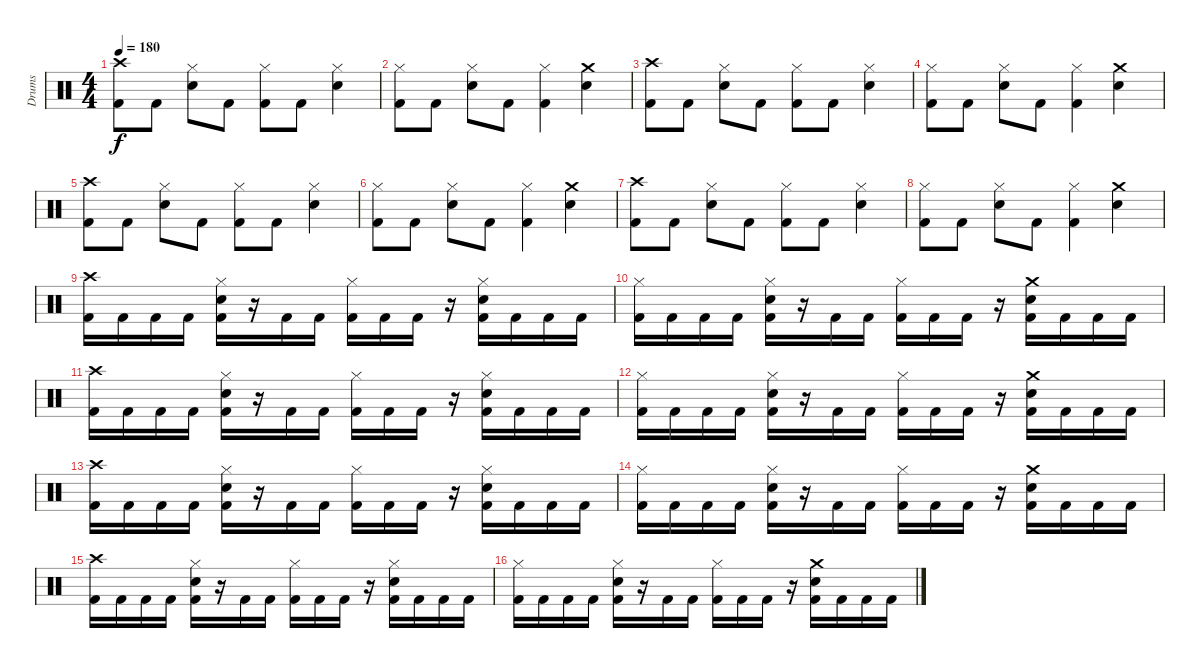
\track ("Drums" "Drums") {instrument percussion}
\staff {score}
\articulation defaults
\ts (4 4)
\tempo 180
\clef neutral
\ks c
("Kick (hit) 2" "Crash high (hit)").8{dy f} "Kick (hit) 2".8 ("Snare (hit) 2" "Hi-Hat (closed)").8 "Kick (hit) 2".8 ("Kick (hit) 2" "Hi-Hat (closed)").8 "Kick (hit) 2".8 ("Snare (hit) 2" "Hi-Hat (closed)").4 |
("Kick (hit) 2" "Hi-Hat (closed)").8 "Kick (hit) 2".8 ("Snare (hit) 2" "Hi-Hat (closed)").8 "Kick (hit) 2".8 ("Kick (hit) 2" "Hi-Hat (closed)").4 ("Snare (hit) 2" "Crash medium (hit)").4 |
("Kick (hit) 2" "Crash high (hit)").8 "Kick (hit) 2".8 ("Snare (hit) 2" "Hi-Hat (closed)").8 "Kick (hit) 2".8 ("Kick (hit) 2" "Hi-Hat (closed)").8 "Kick (hit) 2".8 ("Snare (hit) 2" "Hi-Hat (closed)").4 |
("Kick (hit) 2" "Hi-Hat (closed)").8 "Kick (hit) 2".8 ("Snare (hit) 2" "Hi-Hat (closed)").8 "Kick (hit) 2".8 ("Kick (hit) 2" "Hi-Hat (closed)").4 ("Snare (hit) 2" "Crash medium (hit)").4 |
("Kick (hit) 2" "Crash high (hit)").8 "Kick (hit) 2".8 ("Snare (hit) 2" "Hi-Hat (closed)").8 "Kick (hit) 2".8 ("Kick (hit) 2" "Hi-Hat (closed)").8 "Kick (hit) 2".8 ("Snare (hit) 2" "Hi-Hat (closed)").4 |
("Kick (hit) 2" "Hi-Hat (closed)").8 "Kick (hit) 2".8 ("Snare (hit) 2" "Hi-Hat (closed)").8 "Kick (hit) 2".8 ("Kick (hit) 2" "Hi-Hat (closed)").4 ("Snare (hit) 2" "Crash medium (hit)").4 |
("Kick (hit) 2" "Crash high (hit)").8 "Kick (hit) 2".8 ("Snare (hit) 2" "Hi-Hat (closed)").8 "Kick (hit) 2".8 ("Kick (hit) 2" "Hi-Hat (closed)").8 "Kick (hit) 2".8 ("Snare (hit) 2" "Hi-Hat (closed)").4 |
("Kick (hit) 2" "Hi-Hat (closed)").8 "Kick (hit) 2".8 ("Snare (hit) 2" "Hi-Hat (closed)").8 "Kick (hit) 2".8 ("Kick (hit) 2" "Hi-Hat (closed)").4 ("Snare (hit) 2" "Crash medium (hit)").4 |
("Kick (hit) 2" "Crash high (hit)").16 "Kick (hit) 2".16 "Kick (hit) 2".16 "Kick (hit) 2".16 ("Kick (hit) 2" "Snare (hit) 2" "Hi-Hat (closed)").16 r.16 "Kick (hit) 2".16 "Kick (hit) 2".16 ("Kick (hit) 2" "Hi-Hat (closed)").16 "Kick (hit) 2".16 "Kick (hit) 2".16 r.16 ("Kick (hit) 2" "Snare (hit) 2" "Hi-Hat (closed)").16 "Kick (hit) 2".16 "Kick (hit) 2".16 "Kick (hit) 2".16 |
("Kick (hit) 2" "Hi-Hat (closed)").16 "Kick (hit) 2".16 "Kick (hit) 2".16 "Kick (hit) 2".16 ("Kick (hit) 2" "Snare (hit) 2" "Hi-Hat (closed)").16 r.16 "Kick (hit) 2".16 "Kick (hit) 2".16 ("Kick (hit) 2" "Hi-Hat (closed)").16 "Kick (hit) 2".16 "Kick (hit) 2".16 r.16 ("Kick (hit) 2" "Snare (hit) 2" "Crash medium (hit)").16 "Kick (hit) 2".16 "Kick (hit) 2".16 "Kick (hit) 2".16 |
("Kick (hit) 2" "Crash high (hit)").16 "Kick (hit) 2".16 "Kick (hit) 2".16 "Kick (hit) 2".16 ("Kick (hit) 2" "Snare (hit) 2" "Hi-Hat (closed)").16 r.16 "Kick (hit) 2".16 "Kick (hit) 2".16 ("Kick (hit) 2" "Hi-Hat (closed)").16 "Kick (hit) 2".16 "Kick (hit) 2".16 r.16 ("Kick (hit) 2" "Snare (hit) 2" "Hi-Hat (closed)").16 "Kick (hit) 2".16 "Kick (hit) 2".16 "Kick (hit) 2".16 |
("Kick (hit) 2" "Hi-Hat (closed)").16 "Kick (hit) 2".16 "Kick (hit) 2".16 "Kick (hit) 2".16 ("Kick (hit) 2" "Snare (hit) 2" "Hi-Hat (closed)").16 r.16 "Kick (hit) 2".16 "Kick (hit) 2".16 ("Kick (hit) 2" "Hi-Hat (closed)").16 "Kick (hit) 2".16 "Kick (hit) 2".16 r.16 ("Kick (hit) 2" "Snare (hit) 2" "Crash medium (hit)").16 "Kick (hit) 2".16 "Kick (hit) 2".16 "Kick (hit) 2".16 |
("Kick (hit) 2" "Crash high (hit)").16 "Kick (hit) 2".16 "Kick (hit) 2".16 "Kick (hit) 2".16 ("Kick (hit) 2" "Snare (hit) 2" "Hi-Hat (closed)").16 r.16 "Kick (hit) 2".16 "Kick (hit) 2".16 ("Kick (hit) 2" "Hi-Hat (closed)").16 "Kick (hit) 2".16 "Kick (hit) 2".16 r.16 ("Kick (hit) 2" "Snare (hit) 2" "Hi-Hat (closed)").16 "Kick (hit) 2".16 "Kick (hit) 2".16 "Kick (hit) 2".16 |
("Kick (hit) 2" "Hi-Hat (closed)").16 "Kick (hit) 2".16 "Kick (hit) 2".16 "Kick (hit) 2".16 ("Kick (hit) 2" "Snare (hit) 2" "Hi-Hat (closed)").16 r.16 "Kick (hit) 2".16 "Kick (hit) 2".16 ("Kick (hit) 2" "Hi-Hat (closed)").16 "Kick (hit) 2".16 "Kick (hit) 2".16 r.16 ("Kick (hit) 2" "Snare (hit) 2" "Crash medium (hit)").16 "Kick (hit) 2".16 "Kick (hit) 2".16 "Kick (hit) 2".16 |
("Kick (hit) 2" "Crash high (hit)").16 "Kick (hit) 2".16 "Kick (hit) 2".16 "Kick (hit) 2".16 ("Kick (hit) 2" "Snare (hit) 2" "Hi-Hat (closed)").16 r.16 "Kick (hit) 2".16 "Kick (hit) 2".16 ("Kick (hit) 2" "Hi-Hat (closed)").16 "Kick (hit) 2".16 "Kick (hit) 2".16 r.16 ("Kick (hit) 2" "Snare (hit) 2" "Hi-Hat (closed)").16 "Kick (hit) 2".16 "Kick (hit) 2".16 "Kick (hit) 2".16 |
("Kick (hit) 2" "Hi-Hat (closed)").16 "Kick (hit) 2".16 "Kick (hit) 2".16 "Kick (hit) 2".16 ("Kick (hit) 2" "Snare (hit) 2" "Hi-Hat (closed)").16 r.16 "Kick (hit) 2".16 "Kick (hit) 2".16 ("Kick (hit) 2" "Hi-Hat (closed)").16 "Kick (hit) 2".16 "Kick (hit) 2".16 r.16 ("Kick (hit) 2" "Snare (hit) 2" "Crash medium (hit)").16 "Kick (hit) 2".16 "Kick (hit) 2".16 "Kick (hit) 2".16
